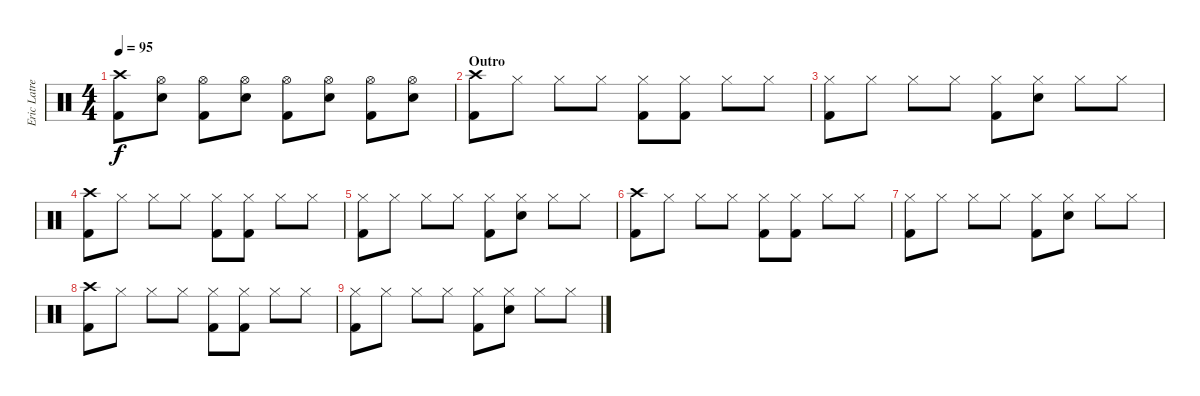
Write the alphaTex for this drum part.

\track ("Eric Latreille" "Eric Latre") {instrument percussion}
\staff {score}
\articulation defaults
\ts (4 4)
\tempo 95
\clef neutral
\ks c
("Crash high (hit)" "Kick (hit) 2").8{dy f} ("Hi-Hat (open)" "Snare (hit) 2").8 ("Hi-Hat (open)" "Kick (hit) 2").8 ("Hi-Hat (open)" "Snare (hit) 2").8 ("Hi-Hat (open)" "Kick (hit) 2").8 ("Hi-Hat (open)" "Snare (hit) 2").8 ("Hi-Hat (open)" "Kick (hit) 2").8 ("Hi-Hat (open)" "Snare (hit) 2").8 |
\section ("" "Outro")
("Crash high (hit)" "Kick (hit) 2").8 "Hi-Hat (closed)".8 "Hi-Hat (closed)".8 "Hi-Hat (closed)".8 ("Hi-Hat (closed)" "Kick (hit) 2").8 ("Hi-Hat (closed)" "Kick (hit) 2").8 "Hi-Hat (closed)".8 "Hi-Hat (closed)".8 |
("Hi-Hat (closed)" "Kick (hit) 2").8 "Hi-Hat (closed)".8 "Hi-Hat (closed)".8 "Hi-Hat (closed)".8 ("Hi-Hat (closed)" "Kick (hit) 2").8 ("Hi-Hat (closed)" "Snare (hit) 2").8 "Hi-Hat (closed)".8 "Hi-Hat (closed)".8 |
("Crash high (hit)" "Kick (hit) 2").8 "Hi-Hat (closed)".8 "Hi-Hat (closed)".8 "Hi-Hat (closed)".8 ("Hi-Hat (closed)" "Kick (hit) 2").8 ("Hi-Hat (closed)" "Kick (hit) 2").8 "Hi-Hat (closed)".8 "Hi-Hat (closed)".8 |
("Hi-Hat (closed)" "Kick (hit) 2").8 "Hi-Hat (closed)".8 "Hi-Hat (closed)".8 "Hi-Hat (closed)".8 ("Hi-Hat (closed)" "Kick (hit) 2").8 ("Hi-Hat (closed)" "Snare (hit) 2").8 "Hi-Hat (closed)".8 "Hi-Hat (closed)".8 |
("Crash high (hit)" "Kick (hit) 2").8 "Hi-Hat (closed)".8 "Hi-Hat (closed)".8 "Hi-Hat (closed)".8 ("Hi-Hat (closed)" "Kick (hit) 2").8 ("Hi-Hat (closed)" "Kick (hit) 2").8 "Hi-Hat (closed)".8 "Hi-Hat (closed)".8 |
("Hi-Hat (closed)" "Kick (hit) 2").8 "Hi-Hat (closed)".8 "Hi-Hat (closed)".8 "Hi-Hat (closed)".8 ("Hi-Hat (closed)" "Kick (hit) 2").8 ("Hi-Hat (closed)" "Snare (hit) 2").8 "Hi-Hat (closed)".8 "Hi-Hat (closed)".8 |
("Crash high (hit)" "Kick (hit) 2").8 "Hi-Hat (closed)".8 "Hi-Hat (closed)".8 "Hi-Hat (closed)".8 ("Hi-Hat (closed)" "Kick (hit) 2").8 ("Hi-Hat (closed)" "Kick (hit) 2").8 "Hi-Hat (closed)".8 "Hi-Hat (closed)".8 |
("Hi-Hat (closed)" "Kick (hit) 2").8 "Hi-Hat (closed)".8 "Hi-Hat (closed)".8 "Hi-Hat (closed)".8 ("Hi-Hat (closed)" "Kick (hit) 2").8 ("Hi-Hat (closed)" "Snare (hit) 2").8 "Hi-Hat (closed)".8 "Hi-Hat (closed)".8
